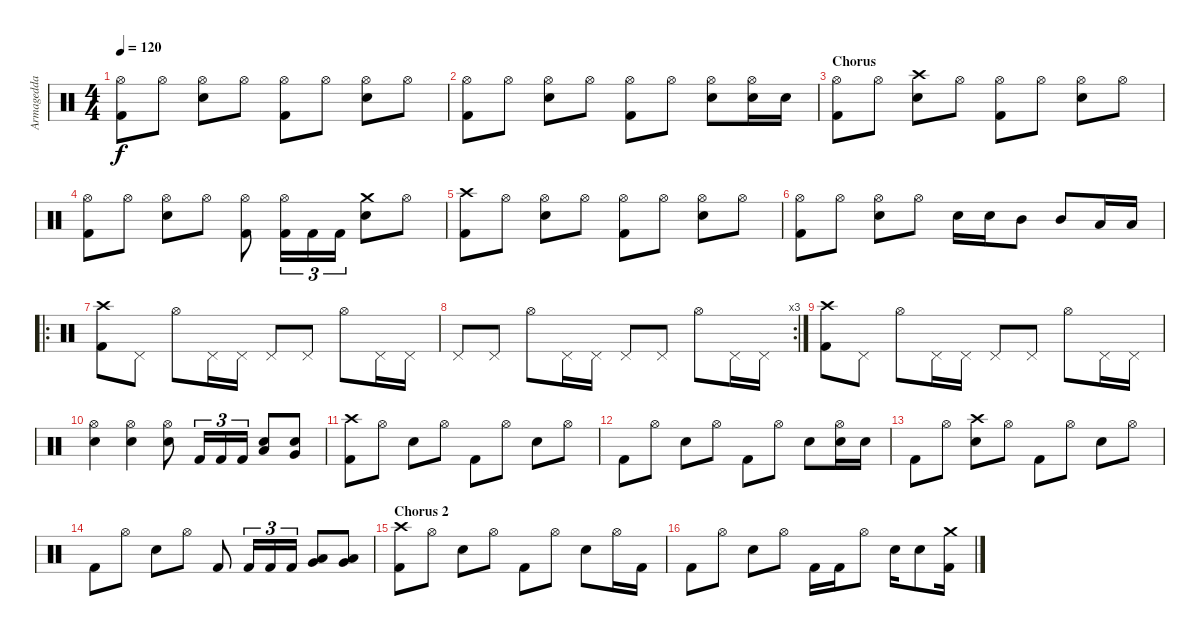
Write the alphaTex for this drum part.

\track ("Armagedda" "Armagedda") {instrument percussion}
\staff {score}
\articulation defaults
\ts (4 4)
\tempo 120
\clef neutral
\ks c
("Hi-Hat (open)" "Kick (hit) 2").8{dy f} "Hi-Hat (open)".8 ("Hi-Hat (open)" "Electric Snare (hit)").8 "Hi-Hat (open)".8 ("Hi-Hat (open)" "Kick (hit) 2").8 "Hi-Hat (open)".8 ("Hi-Hat (open)" "Electric Snare (hit)").8 "Hi-Hat (open)".8 |
("Hi-Hat (open)" "Kick (hit) 2").8 "Hi-Hat (open)".8 ("Hi-Hat (open)" "Electric Snare (hit)").8 "Hi-Hat (open)".8 ("Hi-Hat (open)" "Kick (hit) 2").8 "Hi-Hat (open)".8 ("Hi-Hat (open)" "Electric Snare (hit)").8 ("Hi-Hat (open)" "Electric Snare (hit)").16 "Electric Snare (hit)".16 |
\section ("" "Chorus")
("Hi-Hat (open)" "Kick (hit) 2").8 "Hi-Hat (open)".8 ("Crash high (hit)" "Electric Snare (hit)").8 "Hi-Hat (open)".8 ("Hi-Hat (open)" "Kick (hit) 2").8 "Hi-Hat (open)".8 ("Hi-Hat (open)" "Electric Snare (hit)").8 "Hi-Hat (open)".8 |
("Hi-Hat (open)" "Kick (hit) 2").8 "Hi-Hat (open)".8 ("Hi-Hat (open)" "Electric Snare (hit)").8 "Hi-Hat (open)".8 ("Hi-Hat (open)" "Kick (hit) 2").8 ("Hi-Hat (open)" "Kick (hit) 2").16{tu (3 2)} "Kick (hit) 2".16{tu (3 2)} "Kick (hit) 2".16{tu (3 2)} ("Crash medium (hit)" "Electric Snare (hit)").8 "Hi-Hat (open)".8 |
("Crash high (hit)" "Kick (hit) 2").8 "Hi-Hat (open)".8 ("Hi-Hat (open)" "Electric Snare (hit)").8 "Hi-Hat (open)".8 ("Hi-Hat (open)" "Kick (hit) 2").8 "Hi-Hat (open)".8 ("Hi-Hat (open)" "Electric Snare (hit)").8 "Hi-Hat (open)".8 |
("Hi-Hat (open)" "Kick (hit) 2").8 "Hi-Hat (open)".8 ("Hi-Hat (open)" "Electric Snare (hit)").8 "Hi-Hat (open)".8 "Electric Snare (hit)".16 "Electric Snare (hit)".16 "Mid Tom (hit)".8 "Mid Tom (hit)".8 "Low Tom (hit)".16 "Low Tom (hit)".16 |
\ro
("Crash high (hit)" "Kick (hit) 2").8 "Pedal Hi-Hat (hit)".8 "Hi-Hat (open)".8 "Pedal Hi-Hat (hit)".16 "Pedal Hi-Hat (hit)".16 "Pedal Hi-Hat (hit)".8 "Pedal Hi-Hat (hit)".8 "Hi-Hat (open)".8 "Pedal Hi-Hat (hit)".16 "Pedal Hi-Hat (hit)".16 |
\rc 3 "Pedal Hi-Hat (hit)".8 "Pedal Hi-Hat (hit)".8 "Hi-Hat (open)".8 "Pedal Hi-Hat (hit)".16 "Pedal Hi-Hat (hit)".16 "Pedal Hi-Hat (hit)".8 "Pedal Hi-Hat (hit)".8 "Hi-Hat (open)".8 "Pedal Hi-Hat (hit)".16 "Pedal Hi-Hat (hit)".16
|
("Crash high (hit)" "Kick (hit) 2").8 "Pedal Hi-Hat (hit)".8 "Hi-Hat (open)".8 "Pedal Hi-Hat (hit)".16 "Pedal Hi-Hat (hit)".16 "Pedal Hi-Hat (hit)".8 "Pedal Hi-Hat (hit)".8 "Hi-Hat (open)".8 "Pedal Hi-Hat (hit)".16 "Pedal Hi-Hat (hit)".16 |
("Hi-Hat (open)" "Electric Snare (hit)").4 ("Hi-Hat (open)" "Electric Snare (hit)").4 ("Hi-Hat (open)" "Electric Snare (hit)").8 "Kick (hit) 2".16{tu (3 2)} "Kick (hit) 2".16{tu (3 2)} "Kick (hit) 2".16{tu (3 2)} ("Low Tom (hit)" "Electric Snare (hit)").8 ("Very Low Tom (hit)" "Electric Snare (hit)").8 |
("Crash high (hit)" "Kick (hit) 2").8 "Hi-Hat (open)".8 "Electric Snare (hit)".8 "Hi-Hat (open)".8 "Kick (hit) 2".8 "Hi-Hat (open)".8 "Electric Snare (hit)".8 "Hi-Hat (open)".8 |
"Kick (hit) 2".8 "Hi-Hat (open)".8 "Electric Snare (hit)".8 "Hi-Hat (open)".8 "Kick (hit) 2".8 "Hi-Hat (open)".8 "Electric Snare (hit)".8 ("Hi-Hat (open)" "Electric Snare (hit)").16 "Electric Snare (hit)".16 |
"Kick (hit) 2".8 "Hi-Hat (open)".8 ("Crash high (hit)" "Electric Snare (hit)").8 "Hi-Hat (open)".8 "Kick (hit) 2".8 "Hi-Hat (open)".8 "Electric Snare (hit)".8 "Hi-Hat (open)".8 |
"Kick (hit) 2".8 "Hi-Hat (open)".8 "Electric Snare (hit)".8 "Hi-Hat (open)".8 "Kick (hit) 2".8 "Kick (hit) 2".16{tu (3 2)} "Kick (hit) 2".16{tu (3 2)} "Kick (hit) 2".16{tu (3 2)} ("Low Tom (hit)" "Very Low Tom (hit)").8 ("Low Tom (hit)" "Very Low Tom (hit)").8 |
\section ("" "Chorus 2")
("Crash high (hit)" "Kick (hit) 2").8 "Hi-Hat (open)".8 "Electric Snare (hit)".8 "Hi-Hat (open)".8 "Kick (hit) 2".8 "Hi-Hat (open)".8 "Electric Snare (hit)".8 "Hi-Hat (open)".16 "Kick (hit) 2".16 |
"Kick (hit) 2".8 "Hi-Hat (open)".8 "Electric Snare (hit)".8 "Hi-Hat (open)".8 "Kick (hit) 2".16 "Kick (hit) 2".16 "Hi-Hat (open)".8 "Electric Snare (hit)".16 "Electric Snare (hit)".8 ("Crash medium (hit)" "Kick (hit) 2").16
